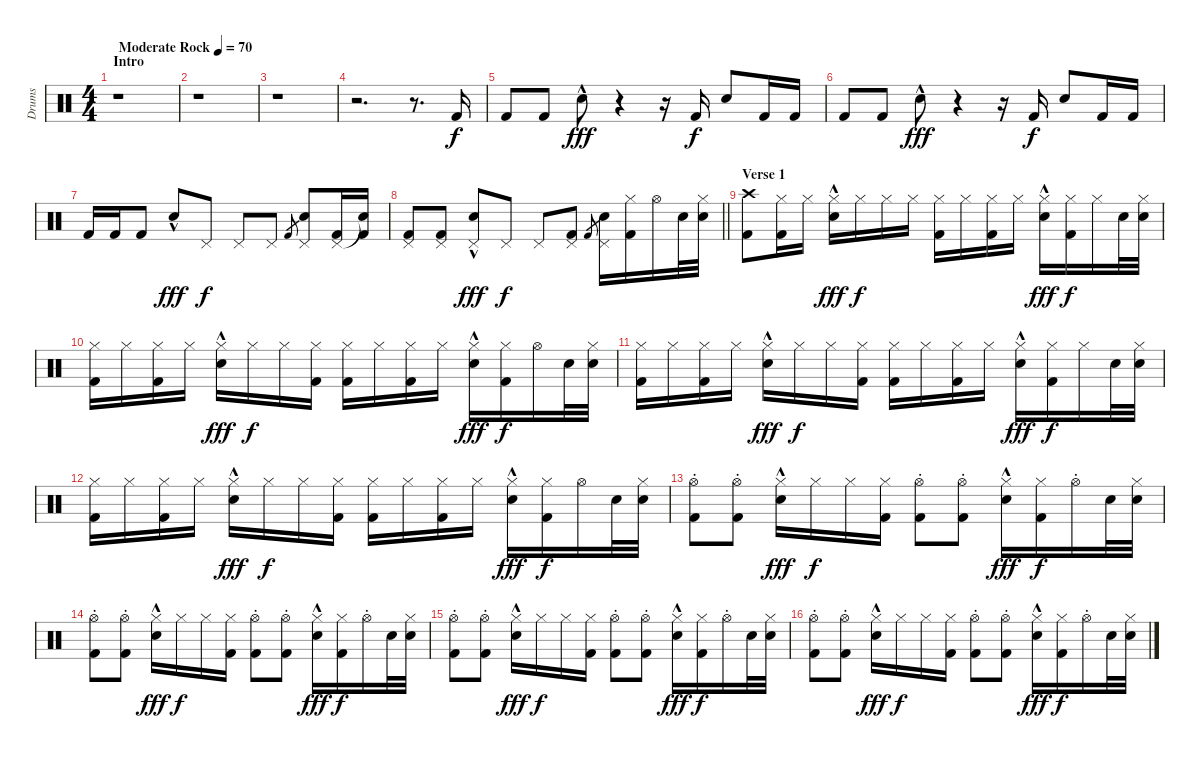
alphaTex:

\track ("Drums" "Drums") {instrument percussion}
\staff {score}
\articulation defaults
\ts (4 4)
\section ("" "Intro")
\tempo (70 "Moderate Rock")
\clef neutral
\ks c
r.1{dy f} |
r.1 |
r.1 |
r.2{d} r.8{d} "Kick (hit) 2".16 |
"Kick (hit) 2".8 "Kick (hit) 2".8 "Electric Snare (hit)"{hac}.8{dy fff} r.4 r.16 "Kick (hit) 2".16{dy f} "Electric Snare (hit)".8 "Kick (hit) 2".16 "Kick (hit) 2".16 |
"Kick (hit) 2".8 "Kick (hit) 2".8 "Electric Snare (hit)"{hac}.8{dy fff} r.4 r.16 "Kick (hit) 2".16{dy f} "Electric Snare (hit)".8 "Kick (hit) 2".16 "Kick (hit) 2".16 |
"Kick (hit) 2".16 "Kick (hit) 2".16 "Kick (hit) 2".8 "Electric Snare (hit)"{hac}.8{dy fff} "Pedal Hi-Hat (hit)".8{dy f} "Pedal Hi-Hat (hit)".8 "Pedal Hi-Hat (hit)".8{volume 13} "Kick (hit) 2".8{gr} ("Pedal Hi-Hat (hit)" "Electric Snare (hit)").8 ("Pedal Hi-Hat (hit)" "Kick (hit) 2").16 ("Snare (hit)"{t} "Kick (hit) 2").16 |
\barLineRight lightlight
("Pedal Hi-Hat (hit)" "Kick (hit) 2").8 ("Pedal Hi-Hat (hit)" "Kick (hit) 2").8 ("Pedal Hi-Hat (hit)" "Electric Snare (hit)"{hac}).8{dy fff} "Pedal Hi-Hat (hit)".8{dy f} "Pedal Hi-Hat (hit)".8 ("Pedal Hi-Hat (hit)" "Kick (hit) 2").8 "Kick (hit) 2".8{gr} ("Pedal Hi-Hat (hit)" "Electric Snare (hit)").16 ("Hi-Hat (closed)" "Kick (hit) 2").16 "Hi-Hat (open)".16 "Electric Snare (hit)".32 ("Hi-Hat (closed)" "Electric Snare (hit)").32 |
\section ("" "Verse 1")
("Crash high (hit)" "Kick (hit) 2").8 ("Hi-Hat (closed)" "Kick (hit) 2").16 "Hi-Hat (closed)".16 ("Hi-Hat (closed)" "Electric Snare (hit)"{hac}).16{dy fff} "Hi-Hat (closed)".16{dy f} "Hi-Hat (closed)".16 "Hi-Hat (closed)".16 ("Hi-Hat (closed)" "Kick (hit) 2").16 "Hi-Hat (closed)".16 ("Hi-Hat (closed)" "Kick (hit) 2").16 "Hi-Hat (closed)".16 ("Hi-Hat (closed)" "Electric Snare (hit)"{hac}).16{dy fff} ("Hi-Hat (closed)" "Kick (hit) 2").16{dy f} "Hi-Hat (closed)".16 "Electric Snare (hit)".32 ("Hi-Hat (closed)" "Electric Snare (hit)").32 |
("Hi-Hat (closed)" "Kick (hit) 2").16 "Hi-Hat (closed)".16 ("Hi-Hat (closed)" "Kick (hit) 2").16 "Hi-Hat (closed)".16 ("Hi-Hat (closed)" "Electric Snare (hit)"{hac}).16{dy fff} "Hi-Hat (closed)".16{dy f} "Hi-Hat (closed)".16 ("Hi-Hat (closed)" "Kick (hit) 2").16 ("Hi-Hat (closed)" "Kick (hit) 2").16 "Hi-Hat (closed)".16 ("Hi-Hat (closed)" "Kick (hit) 2").16 "Hi-Hat (closed)".16 ("Hi-Hat (closed)" "Electric Snare (hit)"{hac}).16{dy fff} ("Hi-Hat (closed)" "Kick (hit) 2").16{dy f} "Hi-Hat (open)".16 "Electric Snare (hit)".32 ("Hi-Hat (closed)" "Electric Snare (hit)").32 |
("Hi-Hat (closed)" "Kick (hit) 2").16 "Hi-Hat (closed)".16 ("Hi-Hat (closed)" "Kick (hit) 2").16 "Hi-Hat (closed)".16 ("Hi-Hat (closed)" "Electric Snare (hit)"{hac}).16{dy fff} "Hi-Hat (closed)".16{dy f} "Hi-Hat (closed)".16 ("Hi-Hat (closed)" "Kick (hit) 2").16 ("Hi-Hat (closed)" "Kick (hit) 2").16 "Hi-Hat (closed)".16 ("Hi-Hat (closed)" "Kick (hit) 2").16 "Hi-Hat (closed)".16 ("Hi-Hat (closed)" "Electric Snare (hit)"{hac}).16{dy fff} ("Hi-Hat (closed)" "Kick (hit) 2").16{dy f} "Hi-Hat (closed)".16 "Electric Snare (hit)".32 ("Hi-Hat (closed)" "Electric Snare (hit)").32 |
("Hi-Hat (closed)" "Kick (hit) 2").16 "Hi-Hat (closed)".16 ("Hi-Hat (closed)" "Kick (hit) 2").16 "Hi-Hat (closed)".16 ("Hi-Hat (closed)" "Electric Snare (hit)"{hac}).16{dy fff} "Hi-Hat (closed)".16{dy f} "Hi-Hat (closed)".16 ("Hi-Hat (closed)" "Kick (hit) 2").16 ("Hi-Hat (closed)" "Kick (hit) 2").16 "Hi-Hat (closed)".16 ("Hi-Hat (closed)" "Kick (hit) 2").16 "Hi-Hat (closed)".16 ("Hi-Hat (closed)" "Electric Snare (hit)"{hac}).16{dy fff} ("Hi-Hat (closed)" "Kick (hit) 2").16{dy f} "Hi-Hat (open)".16 "Electric Snare (hit)".32 ("Hi-Hat (closed)" "Electric Snare (hit)").32 |
("Hi-Hat (open)"{st} "Kick (hit) 2").8 ("Hi-Hat (open)"{st} "Kick (hit) 2").8 ("Hi-Hat (closed)" "Electric Snare (hit)"{hac}).16{dy fff} "Hi-Hat (closed)".16{dy f} "Hi-Hat (closed)".16 ("Hi-Hat (closed)" "Kick (hit) 2").16 ("Hi-Hat (open)"{st} "Kick (hit) 2").8 ("Hi-Hat (open)"{st} "Kick (hit) 2").8 ("Hi-Hat (closed)" "Electric Snare (hit)"{hac}).16{dy fff} ("Hi-Hat (closed)" "Kick (hit) 2").16{dy f} "Hi-Hat (open)"{st}.16 "Electric Snare (hit)".32 ("Hi-Hat (closed)" "Electric Snare (hit)").32 |
("Hi-Hat (open)"{st} "Kick (hit) 2").8 ("Hi-Hat (open)"{st} "Kick (hit) 2").8 ("Hi-Hat (closed)" "Electric Snare (hit)"{hac}).16{dy fff} "Hi-Hat (closed)".16{dy f} "Hi-Hat (closed)".16 ("Hi-Hat (closed)" "Kick (hit) 2").16 ("Hi-Hat (open)"{st} "Kick (hit) 2").8 ("Hi-Hat (open)"{st} "Kick (hit) 2").8 ("Hi-Hat (closed)" "Electric Snare (hit)"{hac}).16{dy fff} ("Hi-Hat (closed)" "Kick (hit) 2").16{dy f} "Hi-Hat (open)"{st}.16 "Electric Snare (hit)".32 ("Hi-Hat (closed)" "Electric Snare (hit)").32 |
("Hi-Hat (open)"{st} "Kick (hit) 2").8 ("Hi-Hat (open)"{st} "Kick (hit) 2").8 ("Hi-Hat (closed)" "Electric Snare (hit)"{hac}).16{dy fff} "Hi-Hat (closed)".16{dy f} "Hi-Hat (closed)".16 ("Hi-Hat (closed)" "Kick (hit) 2").16 ("Hi-Hat (open)"{st} "Kick (hit) 2").8 ("Hi-Hat (open)"{st} "Kick (hit) 2").8 ("Hi-Hat (closed)" "Electric Snare (hit)"{hac}).16{dy fff} ("Hi-Hat (closed)" "Kick (hit) 2").16{dy f} "Hi-Hat (open)"{st}.16 "Electric Snare (hit)".32 ("Hi-Hat (closed)" "Electric Snare (hit)").32 |
("Hi-Hat (open)"{st} "Kick (hit) 2").8 ("Hi-Hat (open)"{st} "Kick (hit) 2").8 ("Hi-Hat (closed)" "Electric Snare (hit)"{hac}).16{dy fff} "Hi-Hat (closed)".16{dy f} "Hi-Hat (closed)".16 ("Hi-Hat (closed)" "Kick (hit) 2").16 ("Hi-Hat (open)"{st} "Kick (hit) 2").8 ("Hi-Hat (open)"{st} "Kick (hit) 2").8 ("Hi-Hat (closed)" "Electric Snare (hit)"{hac}).16{dy fff} ("Hi-Hat (closed)" "Kick (hit) 2").16{dy f} "Hi-Hat (open)"{st}.16 "Electric Snare (hit)".32 ("Hi-Hat (closed)" "Electric Snare (hit)").32
